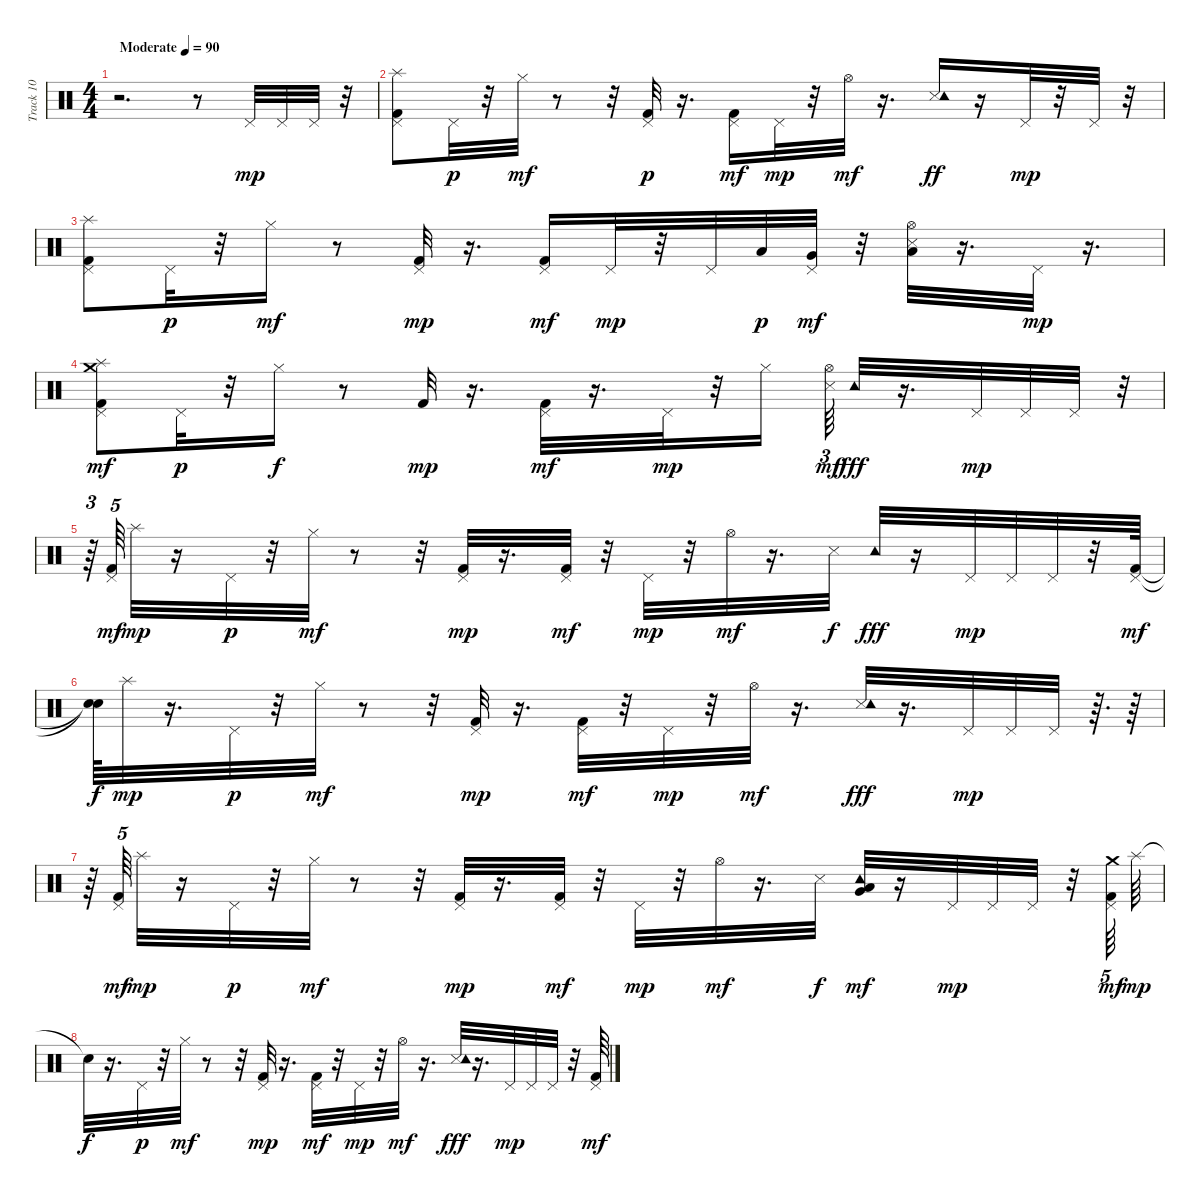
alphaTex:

\track ("Track 10" "Track 10") {instrument percussion}
\staff {score}
\articulation defaults
\ts (4 4)
\tempo (90 "Moderate")
\clef neutral
\ks c
r.2{d dy mp} r.8 "Pedal Hi-Hat (hit)".32 "Pedal Hi-Hat (hit)".32 "Pedal Hi-Hat (hit)".32 r.32 |
("Pedal Hi-Hat (hit)" "Kick (hit) 2" "Splash (hit)").8 "Pedal Hi-Hat (hit)".32{dy p} r.32 "Hi-Hat (closed)".32{dy mf} r.8 r.32 ("Pedal Hi-Hat (hit)" "Kick (hit) 2").32{dy p} r.16{d} ("Pedal Hi-Hat (hit)" "Kick (hit) 2").16{dy mf} "Pedal Hi-Hat (hit)".32{dy mp} r.32 "Hi-Hat (open)".32{dy mf} r.16{d} ("Snare (side stick) 3" "Tambourine (hit)").16{dy ff} r.16 "Pedal Hi-Hat (hit)".32{dy mp} r.32 "Pedal Hi-Hat (hit)".32 r.32 |
("Pedal Hi-Hat (hit)" "Kick (hit) 2" "Splash (hit)").8 "Pedal Hi-Hat (hit)".32{dy p} r.32 "Hi-Hat (closed)".16{dy mf} r.8 ("Pedal Hi-Hat (hit)" "Kick (hit) 2").32{dy mp} r.16{d} ("Pedal Hi-Hat (hit)" "Kick (hit) 2").16{dy mf} "Pedal Hi-Hat (hit)".32{dy mp} r.32 "Pedal Hi-Hat (hit)".32 "Low Tom (hit)".32{dy p} ("Pedal Hi-Hat (hit)" "Very Low Tom (hit)").32{dy mf} r.32 ("Hi-Hat (open)" "Low Floor Tom (hit)" "Snare (side stick) 3").32 r.16{d} "Pedal Hi-Hat (hit)".32{dy mp} r.16{d} |
("Pedal Hi-Hat (hit)" "Crash medium (hit)" "Splash (hit)" "Kick (hit) 2").8{dy mf} "Pedal Hi-Hat (hit)".32{dy p} r.32 "Hi-Hat (closed)".16{dy f} r.8 "Kick (hit) 2".32{dy mp} r.16{d} ("Pedal Hi-Hat (hit)" "Kick (hit) 2").32{dy mf} r.16{d} "Pedal Hi-Hat (hit)".32{dy mp} r.32 "Hi-Hat (closed)".16 ("Hi-Hat (open)" "Snare (side stick) 3").64{tu (3 2) dy mf} "Tambourine (hit)".32{dy fff} r.16{d} "Pedal Hi-Hat (hit)".32{dy mp} "Pedal Hi-Hat (hit)".32 "Pedal Hi-Hat (hit)".32 r.32{tu (3 2)} |
r.64{tu (3 2)} ("Pedal Hi-Hat (hit)" "Kick (hit) 2").64{tu (5 4) dy mf} "Splash (hit)".32{dy mp} r.16 "Pedal Hi-Hat (hit)".32{dy p} r.32 "Hi-Hat (closed)".32{dy mf} r.8 r.32 ("Pedal Hi-Hat (hit)" "Kick (hit) 2").32{dy mp} r.16{d} ("Pedal Hi-Hat (hit)" "Kick (hit) 2").32{dy mf} r.32 "Pedal Hi-Hat (hit)".32{dy mp} r.32 "Hi-Hat (open)".32{dy mf} r.16{d} "Snare (side stick) 3".32{dy f} "Tambourine (hit)".32{dy fff} r.16 "Pedal Hi-Hat (hit)".32{dy mp} "Pedal Hi-Hat (hit)".32 "Pedal Hi-Hat (hit)".32 r.32 ("Pedal Hi-Hat (hit)" "Kick (hit) 2").64{dy mf} |
("Snare (hit)"{t} "Snare (hit)"{t}).64{dy f} "Splash (hit)".32{dy mp} r.16{d} "Pedal Hi-Hat (hit)".32{dy p} r.32 "Hi-Hat (closed)".32{dy mf} r.8 r.32 ("Pedal Hi-Hat (hit)" "Kick (hit) 2").32{dy mp} r.16{d} ("Pedal Hi-Hat (hit)" "Kick (hit) 2").32{dy mf} r.32 "Pedal Hi-Hat (hit)".32{dy mp} r.32 "Hi-Hat (open)".32{dy mf} r.16{d} ("Snare (side stick) 3" "Tambourine (hit)").32{dy fff} r.16{d} "Pedal Hi-Hat (hit)".32{dy mp} "Pedal Hi-Hat (hit)".32 "Pedal Hi-Hat (hit)".32 r.64{d} r.64 |
r.64 ("Pedal Hi-Hat (hit)" "Kick (hit) 2").64{tu (5 4) dy mf} "Splash (hit)".32{dy mp} r.16 "Pedal Hi-Hat (hit)".32{dy p} r.32 "Hi-Hat (closed)".32{dy mf} r.8 r.32 ("Pedal Hi-Hat (hit)" "Kick (hit) 2").32{dy mp} r.16{d} ("Pedal Hi-Hat (hit)" "Kick (hit) 2").32{dy mf} r.32 "Pedal Hi-Hat (hit)".32{dy mp} r.32 "Hi-Hat (open)".32{dy mf} r.16{d} "Snare (side stick) 3".32{dy f} ("Very Low Tom (hit)" "Tambourine (hit)" "Low Floor Tom (hit)").32{dy mf} r.16 "Pedal Hi-Hat (hit)".32{dy mp} "Pedal Hi-Hat (hit)".32 "Pedal Hi-Hat (hit)".32 r.32 ("Pedal Hi-Hat (hit)" "Crash medium (hit)" "Kick (hit) 2").64{tu (5 4) dy mf} "Splash (hit)".64{dy mp} |
"Snare (hit)"{t}.32{dy f} r.16{d} "Pedal Hi-Hat (hit)".32{dy p} r.32 "Hi-Hat (closed)".32{dy mf} r.8 r.32 ("Pedal Hi-Hat (hit)" "Kick (hit) 2").32{dy mp} r.16{d} ("Pedal Hi-Hat (hit)" "Kick (hit) 2").32{dy mf} r.32 "Pedal Hi-Hat (hit)".32{dy mp} r.32 "Hi-Hat (open)".32{dy mf} r.16{d} ("Snare (side stick) 3" "Tambourine (hit)").32{dy fff} r.16{d} "Pedal Hi-Hat (hit)".32{dy mp} "Pedal Hi-Hat (hit)".32 "Pedal Hi-Hat (hit)".32 r.32 ("Pedal Hi-Hat (hit)" "Kick (hit) 2").64{dy mf}
